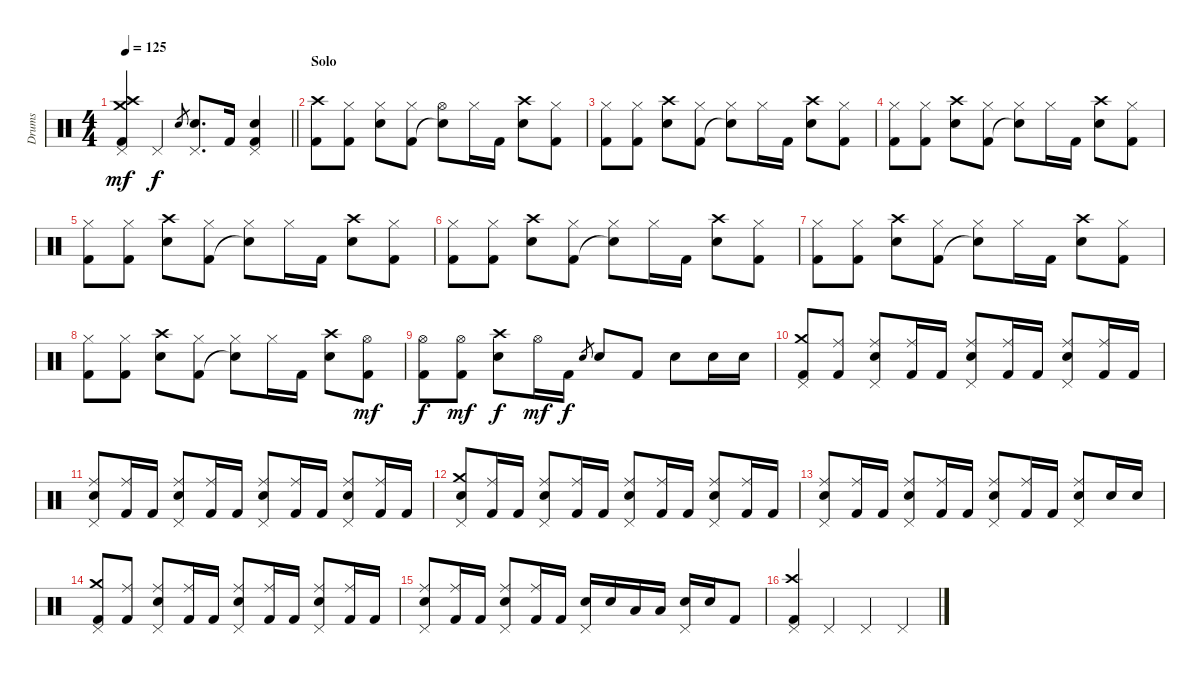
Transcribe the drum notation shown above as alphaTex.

\track ("Drums" "Drums") {instrument percussion}
\staff {score}
\articulation defaults
\ts (4 4)
\tempo 125
\clef neutral
\barLineRight lightlight
\ks c
("Pedal Hi-Hat (hit)" "Crash high (hit)" "Crash medium (hit)" "Kick (hit) 2").4{dy mf} "Pedal Hi-Hat (hit)".4{dy f} "Electric Snare (hit)".8{gr} ("Pedal Hi-Hat (hit)" "Electric Snare (hit)").8{d} "Kick (hit) 2".16 ("Pedal Hi-Hat (hit)" "Kick (hit) 2" "Electric Snare (hit)").4 |
\section ("" "Solo")
("Crash high (hit)" "Kick (hit) 2").8 ("Hi-Hat (closed)" "Kick (hit) 2").8 ("Hi-Hat (closed)" "Electric Snare (hit)").8 ("Hi-Hat (closed)" "Kick (hit) 2").8 ("Hi-Hat (open)" "Snare (hit)"{t}).8 "Hi-Hat (closed)".16 "Kick (hit) 2".16 ("Crash high (hit)" "Electric Snare (hit)").8 ("Hi-Hat (closed)" "Kick (hit) 2").8 |
("Hi-Hat (closed)" "Kick (hit) 2").8 ("Hi-Hat (closed)" "Kick (hit) 2").8 ("Crash high (hit)" "Electric Snare (hit)").8 ("Hi-Hat (closed)" "Kick (hit) 2").8 ("Hi-Hat (closed)" "Snare (hit)"{t}).8 "Hi-Hat (closed)".16 "Kick (hit) 2".16 ("Crash high (hit)" "Electric Snare (hit)").8 ("Hi-Hat (closed)" "Kick (hit) 2").8 |
("Hi-Hat (closed)" "Kick (hit) 2").8 ("Hi-Hat (closed)" "Kick (hit) 2").8 ("Crash high (hit)" "Electric Snare (hit)").8 ("Hi-Hat (closed)" "Kick (hit) 2").8 ("Hi-Hat (closed)" "Snare (hit)"{t}).8 "Hi-Hat (closed)".16 "Kick (hit) 2".16 ("Crash high (hit)" "Electric Snare (hit)").8 ("Hi-Hat (closed)" "Kick (hit) 2").8 |
("Hi-Hat (closed)" "Kick (hit) 2").8 ("Hi-Hat (closed)" "Kick (hit) 2").8 ("Crash high (hit)" "Electric Snare (hit)").8 ("Hi-Hat (closed)" "Kick (hit) 2").8 ("Hi-Hat (closed)" "Snare (hit)"{t}).8 "Hi-Hat (closed)".16 "Kick (hit) 2".16 ("Crash high (hit)" "Electric Snare (hit)").8 ("Hi-Hat (closed)" "Kick (hit) 2").8 |
("Hi-Hat (closed)" "Kick (hit) 2").8 ("Hi-Hat (closed)" "Kick (hit) 2").8 ("Crash high (hit)" "Electric Snare (hit)").8 ("Hi-Hat (closed)" "Kick (hit) 2").8 ("Hi-Hat (closed)" "Snare (hit)"{t}).8 "Hi-Hat (closed)".16 "Kick (hit) 2".16 ("Crash high (hit)" "Electric Snare (hit)").8 ("Hi-Hat (closed)" "Kick (hit) 2").8 |
("Hi-Hat (closed)" "Kick (hit) 2").8 ("Hi-Hat (closed)" "Kick (hit) 2").8 ("Crash high (hit)" "Electric Snare (hit)").8 ("Hi-Hat (closed)" "Kick (hit) 2").8 ("Hi-Hat (closed)" "Snare (hit)"{t}).8 "Hi-Hat (closed)".16 "Kick (hit) 2".16 ("Crash high (hit)" "Electric Snare (hit)").8 ("Hi-Hat (closed)" "Kick (hit) 2").8 |
("Hi-Hat (closed)" "Kick (hit) 2").8 ("Hi-Hat (closed)" "Kick (hit) 2").8 ("Crash high (hit)" "Electric Snare (hit)").8 ("Hi-Hat (closed)" "Kick (hit) 2").8 ("Hi-Hat (closed)" "Snare (hit)"{t}).8 "Hi-Hat (closed)".16 "Kick (hit) 2".16 ("Crash high (hit)" "Electric Snare (hit)").8 ("Hi-Hat (open)" "Kick (hit) 2").8{dy mf} |
("Hi-Hat (open)" "Kick (hit) 2").8{dy f} ("Hi-Hat (open)" "Kick (hit) 2").8{dy mf} ("Crash high (hit)" "Electric Snare (hit)").8{dy f} "Hi-Hat (open)".16{dy mf} "Kick (hit) 2".16{dy f} "Electric Snare (hit)".8{gr} "Electric Snare (hit)".8 "Kick (hit) 2".8 "Electric Snare (hit)".8 "Electric Snare (hit)".16 "Electric Snare (hit)".16 |
("Pedal Hi-Hat (hit)" "Crash medium (hit)" "Kick (hit) 2").8 ("Ride (middle)" "Kick (hit) 2").8 ("Pedal Hi-Hat (hit)" "Ride (middle)" "Electric Snare (hit)").8 ("Ride (middle)" "Kick (hit) 2").16 "Kick (hit) 2".16 ("Pedal Hi-Hat (hit)" "Ride (middle)" "Electric Snare (hit)").8 ("Ride (middle)" "Kick (hit) 2").16 "Kick (hit) 2".16 ("Pedal Hi-Hat (hit)" "Ride (middle)" "Electric Snare (hit)").8 ("Ride (middle)" "Kick (hit) 2").16 "Kick (hit) 2".16 |
("Pedal Hi-Hat (hit)" "Ride (middle)" "Electric Snare (hit)").8 ("Ride (middle)" "Kick (hit) 2").16 "Kick (hit) 2".16 ("Pedal Hi-Hat (hit)" "Ride (middle)" "Electric Snare (hit)").8 ("Ride (middle)" "Kick (hit) 2").16 "Kick (hit) 2".16 ("Pedal Hi-Hat (hit)" "Ride (middle)" "Electric Snare (hit)").8 ("Ride (middle)" "Kick (hit) 2").16 "Kick (hit) 2".16 ("Pedal Hi-Hat (hit)" "Ride (middle)" "Electric Snare (hit)").8 ("Ride (middle)" "Kick (hit) 2").16 "Kick (hit) 2".16 |
("Pedal Hi-Hat (hit)" "Crash medium (hit)" "Electric Snare (hit)").8 ("Ride (middle)" "Kick (hit) 2").16 "Kick (hit) 2".16 ("Pedal Hi-Hat (hit)" "Ride (middle)" "Electric Snare (hit)").8 ("Ride (middle)" "Kick (hit) 2").16 "Kick (hit) 2".16 ("Pedal Hi-Hat (hit)" "Ride (middle)" "Electric Snare (hit)").8 ("Ride (middle)" "Kick (hit) 2").16 "Kick (hit) 2".16 ("Pedal Hi-Hat (hit)" "Ride (middle)" "Electric Snare (hit)").8 ("Ride (middle)" "Kick (hit) 2").16 "Kick (hit) 2".16 |
("Pedal Hi-Hat (hit)" "Ride (middle)" "Electric Snare (hit)").8 ("Ride (middle)" "Kick (hit) 2").16 "Kick (hit) 2".16 ("Pedal Hi-Hat (hit)" "Ride (middle)" "Electric Snare (hit)").8 ("Ride (middle)" "Kick (hit) 2").16 "Kick (hit) 2".16 ("Pedal Hi-Hat (hit)" "Ride (middle)" "Electric Snare (hit)").8 ("Ride (middle)" "Kick (hit) 2").16 "Kick (hit) 2".16 ("Pedal Hi-Hat (hit)" "Ride (middle)" "Electric Snare (hit)").8 "Electric Snare (hit)".16 "Electric Snare (hit)".16 |
("Pedal Hi-Hat (hit)" "Crash medium (hit)" "Kick (hit) 2").8 ("Ride (middle)" "Kick (hit) 2").8 ("Pedal Hi-Hat (hit)" "Ride (middle)" "Electric Snare (hit)").8 ("Ride (middle)" "Kick (hit) 2").16 "Kick (hit) 2".16 ("Pedal Hi-Hat (hit)" "Ride (middle)" "Electric Snare (hit)").8 ("Ride (middle)" "Kick (hit) 2").16 "Kick (hit) 2".16 ("Pedal Hi-Hat (hit)" "Ride (middle)" "Electric Snare (hit)").8 ("Ride (middle)" "Kick (hit) 2").16 "Kick (hit) 2".16 |
("Pedal Hi-Hat (hit)" "Ride (middle)" "Electric Snare (hit)").8 ("Ride (middle)" "Kick (hit) 2").16 "Kick (hit) 2".16 ("Pedal Hi-Hat (hit)" "Ride (middle)" "Electric Snare (hit)").8 ("Ride (middle)" "Kick (hit) 2").16 "Kick (hit) 2".16 ("Pedal Hi-Hat (hit)" "Electric Snare (hit)").16 "Electric Snare (hit)".16 "Low Tom (hit)".16 "Low Floor Tom (hit)".16 ("Pedal Hi-Hat (hit)" "Electric Snare (hit)").16 "Electric Snare (hit)".16 "Kick (hit) 2".8 |
("Pedal Hi-Hat (hit)" "Crash high (hit)" "Kick (hit) 2").4 "Pedal Hi-Hat (hit)".4 "Pedal Hi-Hat (hit)".4 "Pedal Hi-Hat (hit)".4
